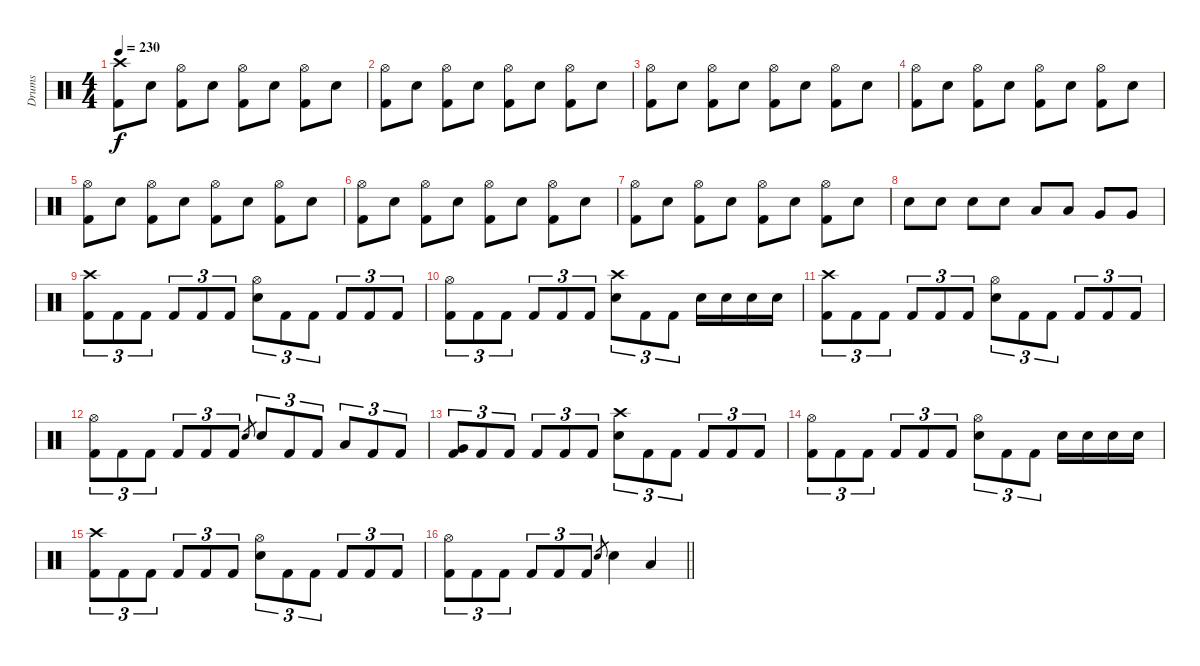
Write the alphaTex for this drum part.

\track ("Drums" "Drums") {instrument percussion}
\staff {score}
\articulation defaults
\ts (4 4)
\tempo 230
\clef neutral
\ks c
("Crash high (hit)" "Kick (hit) 2").8{dy f} "Electric Snare (hit)".8 ("Hi-Hat (open)" "Kick (hit) 2").8 "Electric Snare (hit)".8 ("Hi-Hat (open)" "Kick (hit) 2").8 "Electric Snare (hit)".8 ("Hi-Hat (open)" "Kick (hit) 2").8 "Electric Snare (hit)".8 |
("Hi-Hat (open)" "Kick (hit) 2").8 "Electric Snare (hit)".8 ("Hi-Hat (open)" "Kick (hit) 2").8 "Electric Snare (hit)".8 ("Hi-Hat (open)" "Kick (hit) 2").8 "Electric Snare (hit)".8 ("Hi-Hat (open)" "Kick (hit) 2").8 "Electric Snare (hit)".8 |
("Hi-Hat (open)" "Kick (hit) 2").8 "Electric Snare (hit)".8 ("Hi-Hat (open)" "Kick (hit) 2").8 "Electric Snare (hit)".8 ("Hi-Hat (open)" "Kick (hit) 2").8 "Electric Snare (hit)".8 ("Hi-Hat (open)" "Kick (hit) 2").8 "Electric Snare (hit)".8 |
("Hi-Hat (open)" "Kick (hit) 2").8 "Electric Snare (hit)".8 ("Hi-Hat (open)" "Kick (hit) 2").8 "Electric Snare (hit)".8 ("Hi-Hat (open)" "Kick (hit) 2").8 "Electric Snare (hit)".8 ("Hi-Hat (open)" "Kick (hit) 2").8 "Electric Snare (hit)".8 |
("Hi-Hat (open)" "Kick (hit) 2").8 "Electric Snare (hit)".8 ("Hi-Hat (open)" "Kick (hit) 2").8 "Electric Snare (hit)".8 ("Hi-Hat (open)" "Kick (hit) 2").8 "Electric Snare (hit)".8 ("Hi-Hat (open)" "Kick (hit) 2").8 "Electric Snare (hit)".8 |
("Hi-Hat (open)" "Kick (hit) 2").8 "Electric Snare (hit)".8 ("Hi-Hat (open)" "Kick (hit) 2").8 "Electric Snare (hit)".8 ("Hi-Hat (open)" "Kick (hit) 2").8 "Electric Snare (hit)".8 ("Hi-Hat (open)" "Kick (hit) 2").8 "Electric Snare (hit)".8 |
("Hi-Hat (open)" "Kick (hit) 2").8 "Electric Snare (hit)".8 ("Hi-Hat (open)" "Kick (hit) 2").8 "Electric Snare (hit)".8 ("Hi-Hat (open)" "Kick (hit) 2").8 "Electric Snare (hit)".8 ("Hi-Hat (open)" "Kick (hit) 2").8 "Electric Snare (hit)".8 |
"Electric Snare (hit)".8 "Electric Snare (hit)".8 "Electric Snare (hit)".8 "Electric Snare (hit)".8 "Low Tom (hit)".8 "Low Tom (hit)".8 "Very Low Tom (hit)".8 "Very Low Tom (hit)".8 |
("Crash high (hit)" "Kick (hit) 2").8{tu (3 2)} "Kick (hit) 2".8{tu (3 2)} "Kick (hit) 2".8{tu (3 2)} "Kick (hit) 2".8{tu (3 2)} "Kick (hit) 2".8{tu (3 2)} "Kick (hit) 2".8{tu (3 2)} ("Hi-Hat (open)" "Electric Snare (hit)").8{tu (3 2)} "Kick (hit) 2".8{tu (3 2)} "Kick (hit) 2".8{tu (3 2)} "Kick (hit) 2".8{tu (3 2)} "Kick (hit) 2".8{tu (3 2)} "Kick (hit) 2".8{tu (3 2)} |
("Hi-Hat (open)" "Kick (hit) 2").8{tu (3 2)} "Kick (hit) 2".8{tu (3 2)} "Kick (hit) 2".8{tu (3 2)} "Kick (hit) 2".8{tu (3 2)} "Kick (hit) 2".8{tu (3 2)} "Kick (hit) 2".8{tu (3 2)} ("Crash high (hit)" "Electric Snare (hit)").8{tu (3 2)} "Kick (hit) 2".8{tu (3 2)} "Kick (hit) 2".8{tu (3 2)} "Electric Snare (hit)".16 "Electric Snare (hit)".16 "Electric Snare (hit)".16 "Electric Snare (hit)".16 |
("Crash high (hit)" "Kick (hit) 2").8{tu (3 2)} "Kick (hit) 2".8{tu (3 2)} "Kick (hit) 2".8{tu (3 2)} "Kick (hit) 2".8{tu (3 2)} "Kick (hit) 2".8{tu (3 2)} "Kick (hit) 2".8{tu (3 2)} ("Hi-Hat (open)" "Electric Snare (hit)").8{tu (3 2)} "Kick (hit) 2".8{tu (3 2)} "Kick (hit) 2".8{tu (3 2)} "Kick (hit) 2".8{tu (3 2)} "Kick (hit) 2".8{tu (3 2)} "Kick (hit) 2".8{tu (3 2)} |
("Hi-Hat (open)" "Kick (hit) 2").8{tu (3 2)} "Kick (hit) 2".8{tu (3 2)} "Kick (hit) 2".8{tu (3 2)} "Kick (hit) 2".8{tu (3 2)} "Kick (hit) 2".8{tu (3 2)} "Kick (hit) 2".8{tu (3 2)} "Electric Snare (hit)".8{gr} "Electric Snare (hit)".8{tu (3 2)} "Kick (hit) 2".8{tu (3 2)} "Kick (hit) 2".8{tu (3 2)} "Low Tom (hit)".8{tu (3 2)} "Kick (hit) 2".8{tu (3 2)} "Kick (hit) 2".8{tu (3 2)} |
("Very Low Tom (hit)" "Kick (hit) 2").8{tu (3 2)} "Kick (hit) 2".8{tu (3 2)} "Kick (hit) 2".8{tu (3 2)} "Kick (hit) 2".8{tu (3 2)} "Kick (hit) 2".8{tu (3 2)} "Kick (hit) 2".8{tu (3 2)} ("Crash high (hit)" "Electric Snare (hit)").8{tu (3 2)} "Kick (hit) 2".8{tu (3 2)} "Kick (hit) 2".8{tu (3 2)} "Kick (hit) 2".8{tu (3 2)} "Kick (hit) 2".8{tu (3 2)} "Kick (hit) 2".8{tu (3 2)} |
("Hi-Hat (open)" "Kick (hit) 2").8{tu (3 2)} "Kick (hit) 2".8{tu (3 2)} "Kick (hit) 2".8{tu (3 2)} "Kick (hit) 2".8{tu (3 2)} "Kick (hit) 2".8{tu (3 2)} "Kick (hit) 2".8{tu (3 2)} ("Hi-Hat (open)" "Electric Snare (hit)").8{tu (3 2)} "Kick (hit) 2".8{tu (3 2)} "Kick (hit) 2".8{tu (3 2)} "Electric Snare (hit)".16 "Electric Snare (hit)".16 "Electric Snare (hit)".16 "Electric Snare (hit)".16 |
("Crash high (hit)" "Kick (hit) 2").8{tu (3 2)} "Kick (hit) 2".8{tu (3 2)} "Kick (hit) 2".8{tu (3 2)} "Kick (hit) 2".8{tu (3 2)} "Kick (hit) 2".8{tu (3 2)} "Kick (hit) 2".8{tu (3 2)} ("Hi-Hat (open)" "Electric Snare (hit)").8{tu (3 2)} "Kick (hit) 2".8{tu (3 2)} "Kick (hit) 2".8{tu (3 2)} "Kick (hit) 2".8{tu (3 2)} "Kick (hit) 2".8{tu (3 2)} "Kick (hit) 2".8{tu (3 2)} |
\barLineRight lightlight
("Hi-Hat (open)" "Kick (hit) 2").8{tu (3 2)} "Kick (hit) 2".8{tu (3 2)} "Kick (hit) 2".8{tu (3 2)} "Kick (hit) 2".8{tu (3 2)} "Kick (hit) 2".8{tu (3 2)} "Kick (hit) 2".8{tu (3 2)} "Electric Snare (hit)".8{gr} "Electric Snare (hit)".4 "Low Tom (hit)".4
